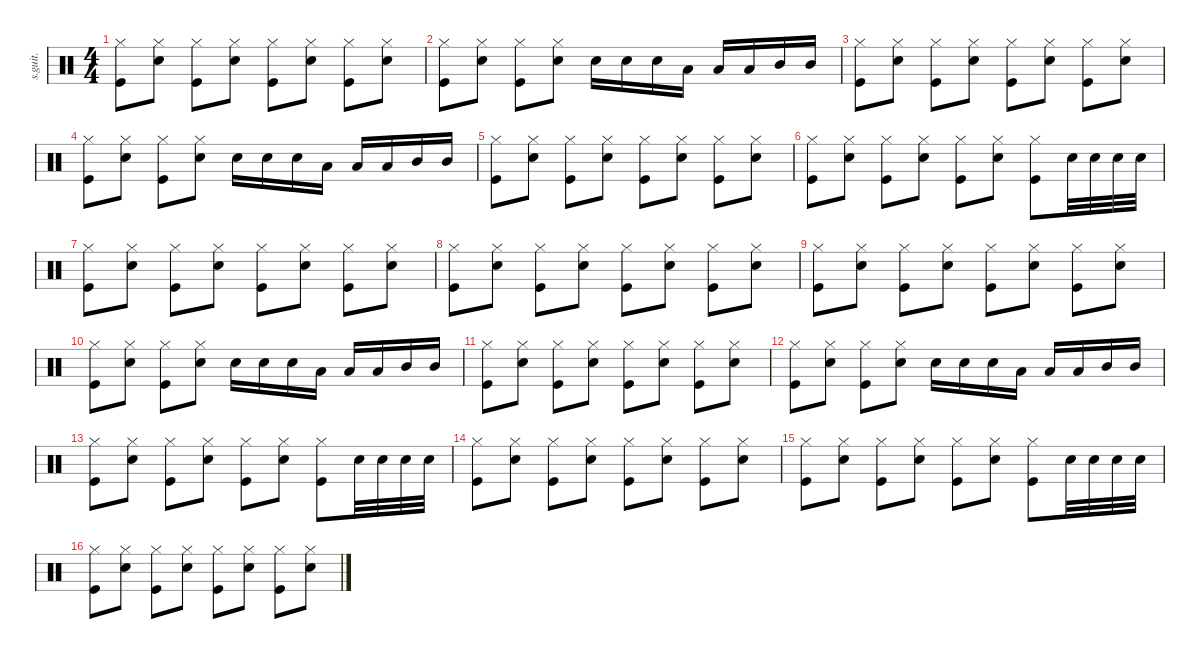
\defaultSystemsLayout 4
\hideDynamics
\bracketExtendMode nobrackets
\track ("batteire(jesus bonehead)" "s.guit.") {instrument percussion}
\staff {score}
\articulation defaults
\ts (4 4)
\tempo (160 hide)
\clef neutral
\ks c
("Hi-Hat (closed)" "Kick (hit)").8{dy f} ("Hi-Hat (closed)" "Snare (hit) 2").8 ("Hi-Hat (closed)" "Kick (hit)").8 ("Hi-Hat (closed)" "Snare (hit) 2").8 ("Hi-Hat (closed)" "Kick (hit)").8 ("Hi-Hat (closed)" "Snare (hit) 2").8 ("Hi-Hat (closed)" "Kick (hit)").8 ("Hi-Hat (closed)" "Snare (hit) 2").8 |
("Hi-Hat (closed)" "Kick (hit)").8 ("Hi-Hat (closed)" "Snare (hit) 2").8 ("Hi-Hat (closed)" "Kick (hit)").8 ("Hi-Hat (closed)" "Snare (hit) 2").8 "Snare (hit) 2".16 "Snare (hit) 2".16 "Snare (hit) 2".16 "Low Tom (hit)".16 "Low Tom (hit)".16 "Low Tom (hit)".16 "Mid Tom (hit)".16 "Mid Tom (hit)".16 |
("Hi-Hat (closed)" "Kick (hit)").8 ("Hi-Hat (closed)" "Snare (hit) 2").8 ("Hi-Hat (closed)" "Kick (hit)").8 ("Hi-Hat (closed)" "Snare (hit) 2").8 ("Hi-Hat (closed)" "Kick (hit)").8 ("Hi-Hat (closed)" "Snare (hit) 2").8 ("Hi-Hat (closed)" "Kick (hit)").8 ("Hi-Hat (closed)" "Snare (hit) 2").8 |
("Hi-Hat (closed)" "Kick (hit)").8 ("Hi-Hat (closed)" "Snare (hit) 2").8 ("Hi-Hat (closed)" "Kick (hit)").8 ("Hi-Hat (closed)" "Snare (hit) 2").8 "Snare (hit) 2".16 "Snare (hit) 2".16 "Snare (hit) 2".16 "Low Tom (hit)".16 "Low Tom (hit)".16 "Low Tom (hit)".16 "Mid Tom (hit)".16 "Mid Tom (hit)".16 |
("Hi-Hat (closed)" "Kick (hit)").8 ("Hi-Hat (closed)" "Snare (hit) 2").8 ("Hi-Hat (closed)" "Kick (hit)").8 ("Hi-Hat (closed)" "Snare (hit) 2").8 ("Hi-Hat (closed)" "Kick (hit)").8 ("Hi-Hat (closed)" "Snare (hit) 2").8 ("Hi-Hat (closed)" "Kick (hit)").8 ("Hi-Hat (closed)" "Snare (hit) 2").8 |
("Hi-Hat (closed)" "Kick (hit)").8 ("Hi-Hat (closed)" "Snare (hit) 2").8 ("Hi-Hat (closed)" "Kick (hit)").8 ("Hi-Hat (closed)" "Snare (hit) 2").8 ("Hi-Hat (closed)" "Kick (hit)").8 ("Hi-Hat (closed)" "Snare (hit) 2").8 ("Hi-Hat (closed)" "Kick (hit)").8 "Snare (hit) 2".32 "Snare (hit) 2".32 "Snare (hit) 2".32 "Snare (hit) 2".32 |
("Hi-Hat (closed)" "Kick (hit)").8 ("Hi-Hat (closed)" "Snare (hit) 2").8 ("Hi-Hat (closed)" "Kick (hit)").8 ("Hi-Hat (closed)" "Snare (hit) 2").8 ("Hi-Hat (closed)" "Kick (hit)").8 ("Hi-Hat (closed)" "Snare (hit) 2").8 ("Hi-Hat (closed)" "Kick (hit)").8 ("Hi-Hat (closed)" "Snare (hit) 2").8 |
("Hi-Hat (closed)" "Kick (hit)").8 ("Hi-Hat (closed)" "Snare (hit) 2").8 ("Hi-Hat (closed)" "Kick (hit)").8 ("Hi-Hat (closed)" "Snare (hit) 2").8 ("Hi-Hat (closed)" "Kick (hit)").8 ("Hi-Hat (closed)" "Snare (hit) 2").8 ("Hi-Hat (closed)" "Kick (hit)").8 ("Hi-Hat (closed)" "Snare (hit) 2").8 |
("Hi-Hat (closed)" "Kick (hit)").8 ("Hi-Hat (closed)" "Snare (hit) 2").8 ("Hi-Hat (closed)" "Kick (hit)").8 ("Hi-Hat (closed)" "Snare (hit) 2").8 ("Hi-Hat (closed)" "Kick (hit)").8 ("Hi-Hat (closed)" "Snare (hit) 2").8 ("Hi-Hat (closed)" "Kick (hit)").8 ("Hi-Hat (closed)" "Snare (hit) 2").8 |
("Hi-Hat (closed)" "Kick (hit)").8 ("Hi-Hat (closed)" "Snare (hit) 2").8 ("Hi-Hat (closed)" "Kick (hit)").8 ("Hi-Hat (closed)" "Snare (hit) 2").8 "Snare (hit) 2".16 "Snare (hit) 2".16 "Snare (hit) 2".16 "Low Tom (hit)".16 "Low Tom (hit)".16 "Low Tom (hit)".16 "Mid Tom (hit)".16 "Mid Tom (hit)".16 |
("Hi-Hat (closed)" "Kick (hit)").8 ("Hi-Hat (closed)" "Snare (hit) 2").8 ("Hi-Hat (closed)" "Kick (hit)").8 ("Hi-Hat (closed)" "Snare (hit) 2").8 ("Hi-Hat (closed)" "Kick (hit)").8 ("Hi-Hat (closed)" "Snare (hit) 2").8 ("Hi-Hat (closed)" "Kick (hit)").8 ("Hi-Hat (closed)" "Snare (hit) 2").8 |
("Hi-Hat (closed)" "Kick (hit)").8 ("Hi-Hat (closed)" "Snare (hit) 2").8 ("Hi-Hat (closed)" "Kick (hit)").8 ("Hi-Hat (closed)" "Snare (hit) 2").8 "Snare (hit) 2".16 "Snare (hit) 2".16 "Snare (hit) 2".16 "Low Tom (hit)".16 "Low Tom (hit)".16 "Low Tom (hit)".16 "Mid Tom (hit)".16 "Mid Tom (hit)".16 |
("Hi-Hat (closed)" "Kick (hit)").8 ("Hi-Hat (closed)" "Snare (hit) 2").8 ("Hi-Hat (closed)" "Kick (hit)").8 ("Hi-Hat (closed)" "Snare (hit) 2").8 ("Hi-Hat (closed)" "Kick (hit)").8 ("Hi-Hat (closed)" "Snare (hit) 2").8 ("Hi-Hat (closed)" "Kick (hit)").8 "Snare (hit) 2".32 "Snare (hit) 2".32 "Snare (hit) 2".32 "Snare (hit) 2".32 |
("Hi-Hat (closed)" "Kick (hit)").8 ("Hi-Hat (closed)" "Snare (hit) 2").8 ("Hi-Hat (closed)" "Kick (hit)").8 ("Hi-Hat (closed)" "Snare (hit) 2").8 ("Hi-Hat (closed)" "Kick (hit)").8 ("Hi-Hat (closed)" "Snare (hit) 2").8 ("Hi-Hat (closed)" "Kick (hit)").8 ("Hi-Hat (closed)" "Snare (hit) 2").8 |
("Hi-Hat (closed)" "Kick (hit)").8 ("Hi-Hat (closed)" "Snare (hit) 2").8 ("Hi-Hat (closed)" "Kick (hit)").8 ("Hi-Hat (closed)" "Snare (hit) 2").8 ("Hi-Hat (closed)" "Kick (hit)").8 ("Hi-Hat (closed)" "Snare (hit) 2").8 ("Hi-Hat (closed)" "Kick (hit)").8 "Snare (hit) 2".32 "Snare (hit) 2".32 "Snare (hit) 2".32 "Snare (hit) 2".32 |
("Hi-Hat (closed)" "Kick (hit)").8 ("Hi-Hat (closed)" "Snare (hit) 2").8 ("Hi-Hat (closed)" "Kick (hit)").8 ("Hi-Hat (closed)" "Snare (hit) 2").8 ("Hi-Hat (closed)" "Kick (hit)").8 ("Hi-Hat (closed)" "Snare (hit) 2").8 ("Hi-Hat (closed)" "Kick (hit)").8 ("Hi-Hat (closed)" "Snare (hit) 2").8
